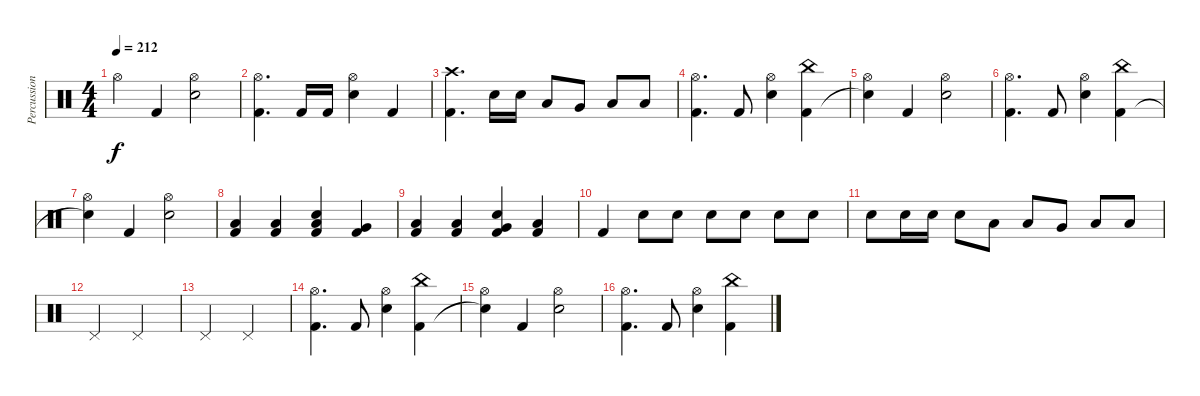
\track ("Percussions" "Percussion") {instrument percussion}
\staff {score}
\articulation defaults
\ts (4 4)
\tempo 212
\clef neutral
\ks c "Hi-Hat (open)".4{dy f} "Kick (hit) 2".4
("Hi-Hat (open)" "Snare (hit) 2").2 |
("Hi-Hat (open)" "Kick (hit) 2").4{d} "Kick (hit) 2".16 "Kick (hit) 2".16 ("Hi-Hat (open)" "Snare (hit) 2").4 "Kick (hit) 2".4 |
("Crash high (hit)" "Kick (hit) 2").4{d} "Snare (hit) 2".16 "Snare (hit) 2".16 "Low Tom (hit)".8 "Very Low Tom (hit)".8 "Low Floor Tom (hit)".8 "Low Floor Tom (hit)".8 |
("Hi-Hat (open)" "Kick (hit) 2").4{d} "Kick (hit) 2".8 ("Hi-Hat (open)" "Snare (hit) 2").4 ("China (hit)" "Kick (hit) 2").4 |
("Hi-Hat (open)" "Snare (hit)"{t}).4 "Kick (hit) 2".4 ("Hi-Hat (open)" "Snare (hit) 2").2 |
("Hi-Hat (open)" "Kick (hit) 2").4{d} "Kick (hit) 2".8 ("Hi-Hat (open)" "Snare (hit) 2").4 ("China (hit)" "Kick (hit) 2").4 |
("Hi-Hat (open)" "Snare (hit)"{t}).4 "Kick (hit) 2".4 ("Hi-Hat (open)" "Snare (hit) 2").2 |
("Low Tom (hit)" "Kick (hit) 2").4 ("Low Tom (hit)" "Kick (hit) 2").4 ("Low Tom (hit)" "Snare (hit) 2" "Kick (hit) 2").4 ("Very Low Tom (hit)" "Kick (hit) 2").4 |
("Low Tom (hit)" "Kick (hit) 2").4 ("Low Tom (hit)" "Kick (hit) 2").4 ("Very Low Tom (hit)" "Snare (hit) 2" "Kick (hit) 2").4 ("Low Floor Tom (hit)" "Kick (hit) 2").4 |
"Kick (hit) 2".4 "Snare (hit) 2".8 "Snare (hit) 2".8 "Snare (hit) 2".8 "Snare (hit) 2".8 "Snare (hit) 2".8 "Snare (hit) 2".8 |
"Snare (hit) 2".8 "Snare (hit) 2".16 "Snare (hit) 2".16 "Snare (hit) 2".8 "Low Tom (hit)".8 "Low Tom (hit)".8 "Very Low Tom (hit)".8 "Low Floor Tom (hit)".8 "Low Floor Tom (hit)".8 |
"Pedal Hi-Hat (hit)".2 "Pedal Hi-Hat (hit)".2 |
"Pedal Hi-Hat (hit)".2 "Pedal Hi-Hat (hit)".2 |
("Hi-Hat (open)" "Kick (hit) 2").4{d} "Kick (hit) 2".8 ("Hi-Hat (open)" "Snare (hit) 2").4 ("China (hit)" "Kick (hit) 2").4 |
("Hi-Hat (open)" "Snare (hit)"{t}).4 "Kick (hit) 2".4 ("Hi-Hat (open)" "Snare (hit) 2").2 |
("Hi-Hat (open)" "Kick (hit) 2").4{d} "Kick (hit) 2".8 ("Hi-Hat (open)" "Snare (hit) 2").4 ("China (hit)" "Kick (hit) 2").4
